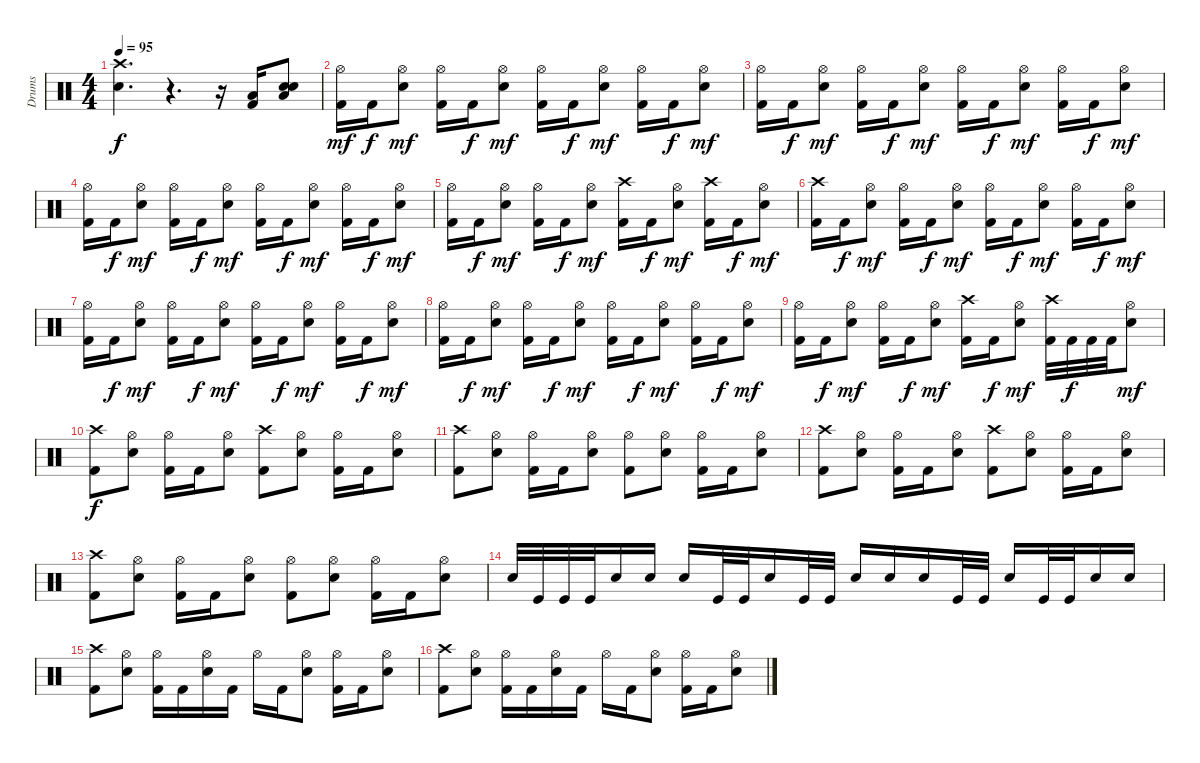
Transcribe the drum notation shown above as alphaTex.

\track ("Drums" "Drums") {instrument percussion}
\staff {score}
\articulation defaults
\ts (4 4)
\tempo 95
\clef neutral
\ks c
("Crash high (hit)" "Snare (hit) 2").4{d dy f} r.4{d} r.16 ("Low Tom (hit)" "Kick (hit) 2").16 ("Low Tom (hit)" "Snare (hit) 2" "Snare (hit) 2").8{bd 60} |
("Hi-Hat (open)" "Kick (hit) 2").16{dy mf} "Kick (hit) 2".16{dy f} ("Hi-Hat (open)" "Snare (hit) 2").8{dy mf} ("Hi-Hat (open)" "Kick (hit) 2").16 "Kick (hit) 2".16{dy f} ("Hi-Hat (open)" "Snare (hit) 2").8{dy mf} ("Hi-Hat (open)" "Kick (hit) 2").16 "Kick (hit) 2".16{dy f} ("Hi-Hat (open)" "Snare (hit) 2").8{dy mf} ("Hi-Hat (open)" "Kick (hit) 2").16 "Kick (hit) 2".16{dy f} ("Hi-Hat (open)" "Snare (hit) 2").8{dy mf} |
("Hi-Hat (open)" "Kick (hit) 2").16 "Kick (hit) 2".16{dy f} ("Hi-Hat (open)" "Snare (hit) 2").8{dy mf} ("Hi-Hat (open)" "Kick (hit) 2").16 "Kick (hit) 2".16{dy f} ("Hi-Hat (open)" "Snare (hit) 2").8{dy mf} ("Hi-Hat (open)" "Kick (hit) 2").16 "Kick (hit) 2".16{dy f} ("Hi-Hat (open)" "Snare (hit) 2").8{dy mf} ("Hi-Hat (open)" "Kick (hit) 2").16 "Kick (hit) 2".16{dy f} ("Hi-Hat (open)" "Snare (hit) 2").8{dy mf} |
("Hi-Hat (open)" "Kick (hit) 2").16 "Kick (hit) 2".16{dy f} ("Hi-Hat (open)" "Snare (hit) 2").8{dy mf} ("Hi-Hat (open)" "Kick (hit) 2").16 "Kick (hit) 2".16{dy f} ("Hi-Hat (open)" "Snare (hit) 2").8{dy mf} ("Hi-Hat (open)" "Kick (hit) 2").16 "Kick (hit) 2".16{dy f} ("Hi-Hat (open)" "Snare (hit) 2").8{dy mf} ("Hi-Hat (open)" "Kick (hit) 2").16 "Kick (hit) 2".16{dy f} ("Hi-Hat (open)" "Snare (hit) 2").8{dy mf} |
("Hi-Hat (open)" "Kick (hit) 2").16 "Kick (hit) 2".16{dy f} ("Hi-Hat (open)" "Snare (hit) 2").8{dy mf} ("Hi-Hat (open)" "Kick (hit) 2").16 "Kick (hit) 2".16{dy f} ("Hi-Hat (open)" "Snare (hit) 2").8{dy mf} ("Crash high (hit)" "Kick (hit) 2").16 "Kick (hit) 2".16{dy f} ("Hi-Hat (open)" "Snare (hit) 2").8{dy mf} ("Crash high (hit)" "Kick (hit) 2").16 "Kick (hit) 2".16{dy f} ("Hi-Hat (open)" "Snare (hit) 2").8{dy mf} |
("Crash high (hit)" "Kick (hit) 2").16 "Kick (hit) 2".16{dy f} ("Hi-Hat (open)" "Snare (hit) 2").8{dy mf} ("Hi-Hat (open)" "Kick (hit) 2").16 "Kick (hit) 2".16{dy f} ("Hi-Hat (open)" "Snare (hit) 2").8{dy mf} ("Hi-Hat (open)" "Kick (hit) 2").16 "Kick (hit) 2".16{dy f} ("Hi-Hat (open)" "Snare (hit) 2").8{dy mf} ("Hi-Hat (open)" "Kick (hit) 2").16 "Kick (hit) 2".16{dy f} ("Hi-Hat (open)" "Snare (hit) 2").8{dy mf} |
("Hi-Hat (open)" "Kick (hit) 2").16 "Kick (hit) 2".16{dy f} ("Hi-Hat (open)" "Snare (hit) 2").8{dy mf} ("Hi-Hat (open)" "Kick (hit) 2").16 "Kick (hit) 2".16{dy f} ("Hi-Hat (open)" "Snare (hit) 2").8{dy mf} ("Hi-Hat (open)" "Kick (hit) 2").16 "Kick (hit) 2".16{dy f} ("Hi-Hat (open)" "Snare (hit) 2").8{dy mf} ("Hi-Hat (open)" "Kick (hit) 2").16 "Kick (hit) 2".16{dy f} ("Hi-Hat (open)" "Snare (hit) 2").8{dy mf} |
("Hi-Hat (open)" "Kick (hit) 2").16 "Kick (hit) 2".16{dy f} ("Hi-Hat (open)" "Snare (hit) 2").8{dy mf} ("Hi-Hat (open)" "Kick (hit) 2").16 "Kick (hit) 2".16{dy f} ("Hi-Hat (open)" "Snare (hit) 2").8{dy mf} ("Hi-Hat (open)" "Kick (hit) 2").16 "Kick (hit) 2".16{dy f} ("Hi-Hat (open)" "Snare (hit) 2").8{dy mf} ("Hi-Hat (open)" "Kick (hit) 2").16 "Kick (hit) 2".16{dy f} ("Hi-Hat (open)" "Snare (hit) 2").8{dy mf} |
("Hi-Hat (open)" "Kick (hit) 2").16 "Kick (hit) 2".16{dy f} ("Hi-Hat (open)" "Snare (hit) 2").8{dy mf} ("Hi-Hat (open)" "Kick (hit) 2").16 "Kick (hit) 2".16{dy f} ("Hi-Hat (open)" "Snare (hit) 2").8{dy mf} ("Crash high (hit)" "Kick (hit) 2").16 "Kick (hit) 2".16{dy f} ("Hi-Hat (open)" "Snare (hit) 2").8{dy mf} ("Crash high (hit)" "Kick (hit) 2").32 "Kick (hit) 2".32{dy f} "Kick (hit) 2".32 "Kick (hit) 2".32 ("Hi-Hat (open)" "Snare (hit) 2").8{dy mf} |
("Crash high (hit)" "Kick (hit) 2").8{dy f} ("Hi-Hat (open)" "Snare (hit) 2").8 ("Hi-Hat (open)" "Kick (hit) 2").16 "Kick (hit) 2".16 ("Hi-Hat (open)" "Snare (hit) 2").8 ("Crash high (hit)" "Kick (hit) 2").8 ("Hi-Hat (open)" "Snare (hit) 2").8 ("Hi-Hat (open)" "Kick (hit) 2").16 "Kick (hit) 2".16 ("Hi-Hat (open)" "Snare (hit) 2").8 |
("Crash high (hit)" "Kick (hit) 2").8 ("Hi-Hat (open)" "Snare (hit) 2").8 ("Hi-Hat (open)" "Kick (hit) 2").16 "Kick (hit) 2".16 ("Hi-Hat (open)" "Snare (hit) 2").8 ("Hi-Hat (open)" "Kick (hit) 2").8 ("Hi-Hat (open)" "Snare (hit) 2").8 ("Hi-Hat (open)" "Kick (hit) 2").16 "Kick (hit) 2".16 ("Hi-Hat (open)" "Snare (hit) 2").8 |
("Crash high (hit)" "Kick (hit) 2").8 ("Hi-Hat (open)" "Snare (hit) 2").8 ("Hi-Hat (open)" "Kick (hit) 2").16 "Kick (hit) 2".16 ("Hi-Hat (open)" "Snare (hit) 2").8 ("Crash high (hit)" "Kick (hit) 2").8 ("Hi-Hat (open)" "Snare (hit) 2").8 ("Hi-Hat (open)" "Kick (hit) 2").16 "Kick (hit) 2".16 ("Hi-Hat (open)" "Snare (hit) 2").8 |
("Crash high (hit)" "Kick (hit) 2").8 ("Hi-Hat (open)" "Snare (hit) 2").8 ("Hi-Hat (open)" "Kick (hit) 2").16 "Kick (hit) 2".16 ("Hi-Hat (open)" "Snare (hit) 2").8 ("Hi-Hat (open)" "Kick (hit) 2").8 ("Hi-Hat (open)" "Snare (hit) 2").8 ("Hi-Hat (open)" "Kick (hit) 2").16 "Kick (hit) 2".16 ("Hi-Hat (open)" "Snare (hit) 2").8 |
"Snare (hit) 2".32 "Kick (hit)".32 "Kick (hit)".32 "Kick (hit)".32 "Snare (hit) 2".16 "Snare (hit) 2".16 "Snare (hit) 2".16 "Kick (hit)".32 "Kick (hit)".32 "Snare (hit) 2".16 "Kick (hit)".32 "Kick (hit)".32 "Snare (hit) 2".16 "Snare (hit) 2".16 "Snare (hit) 2".16 "Kick (hit)".32 "Kick (hit)".32 "Snare (hit) 2".16 "Kick (hit)".32 "Kick (hit)".32 "Snare (hit) 2".16 "Snare (hit) 2".16 |
("Crash high (hit)" "Kick (hit) 2").8 ("Hi-Hat (open)" "Snare (hit) 2").8 ("Hi-Hat (open)" "Kick (hit) 2").16 "Kick (hit) 2".16 ("Hi-Hat (open)" "Snare (hit) 2").16 "Kick (hit) 2".16 "Hi-Hat (open)".16 "Kick (hit) 2".16 ("Hi-Hat (open)" "Snare (hit) 2").8 ("Hi-Hat (open)" "Kick (hit) 2").16 "Kick (hit) 2".16 ("Hi-Hat (open)" "Snare (hit) 2").8 |
("Crash high (hit)" "Kick (hit) 2").8 ("Hi-Hat (open)" "Snare (hit) 2").8 ("Hi-Hat (open)" "Kick (hit) 2").16 "Kick (hit) 2".16 ("Hi-Hat (open)" "Snare (hit) 2").16 "Kick (hit) 2".16 "Hi-Hat (open)".16 "Kick (hit) 2".16 ("Hi-Hat (open)" "Snare (hit) 2").8 ("Hi-Hat (open)" "Kick (hit) 2").16 "Kick (hit) 2".16 ("Hi-Hat (open)" "Snare (hit) 2").8
